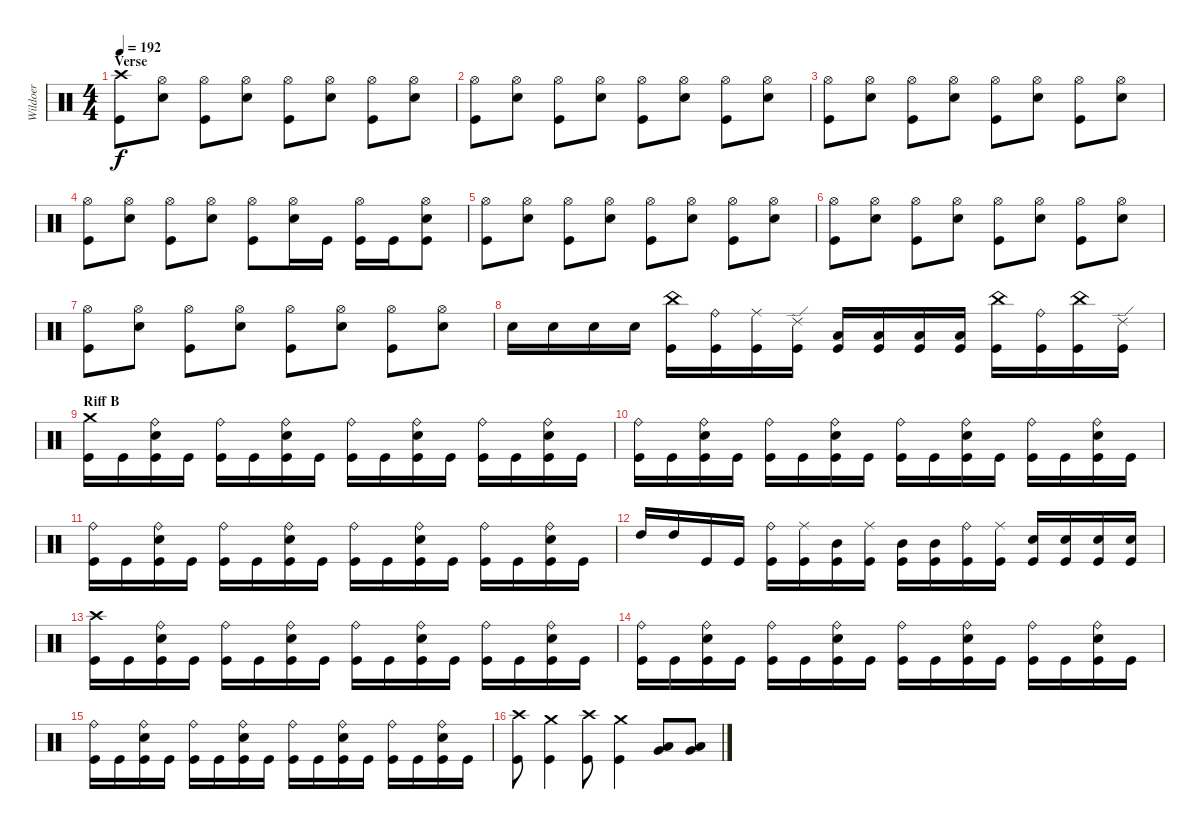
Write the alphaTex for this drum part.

\track ("Wildoer" "Wildoer") {instrument percussion}
\staff {score}
\articulation defaults
\ts (4 4)
\section ("" "Verse")
\tempo 192
\clef neutral
\ks c
("Crash high (hit)" "Kick (hit)").8{dy f} ("Hi-Hat (open)" "Electric Snare (hit)").8 ("Hi-Hat (open)" "Kick (hit)").8 ("Hi-Hat (open)" "Electric Snare (hit)").8 ("Hi-Hat (open)" "Kick (hit)").8 ("Hi-Hat (open)" "Electric Snare (hit)").8 ("Hi-Hat (open)" "Kick (hit)").8 ("Hi-Hat (open)" "Electric Snare (hit)").8 |
("Hi-Hat (open)" "Kick (hit)").8 ("Hi-Hat (open)" "Electric Snare (hit)").8 ("Hi-Hat (open)" "Kick (hit)").8 ("Hi-Hat (open)" "Electric Snare (hit)").8 ("Hi-Hat (open)" "Kick (hit)").8 ("Hi-Hat (open)" "Electric Snare (hit)").8 ("Hi-Hat (open)" "Kick (hit)").8 ("Hi-Hat (open)" "Electric Snare (hit)").8 |
("Hi-Hat (open)" "Kick (hit)").8 ("Hi-Hat (open)" "Electric Snare (hit)").8 ("Hi-Hat (open)" "Kick (hit)").8 ("Hi-Hat (open)" "Electric Snare (hit)").8 ("Hi-Hat (open)" "Kick (hit)").8 ("Hi-Hat (open)" "Electric Snare (hit)").8 ("Hi-Hat (open)" "Kick (hit)").8 ("Hi-Hat (open)" "Electric Snare (hit)").8 |
("Hi-Hat (open)" "Kick (hit)").8 ("Hi-Hat (open)" "Electric Snare (hit)").8 ("Hi-Hat (open)" "Kick (hit)").8 ("Hi-Hat (open)" "Electric Snare (hit)").8 ("Hi-Hat (open)" "Kick (hit)").8 ("Hi-Hat (open)" "Electric Snare (hit)").16 "Kick (hit)".16 ("Hi-Hat (open)" "Kick (hit)").16 "Kick (hit)".16 ("Hi-Hat (open)" "Electric Snare (hit)" "Kick (hit)").8 |
("Hi-Hat (open)" "Kick (hit)").8 ("Hi-Hat (open)" "Electric Snare (hit)").8 ("Hi-Hat (open)" "Kick (hit)").8 ("Hi-Hat (open)" "Electric Snare (hit)").8 ("Hi-Hat (open)" "Kick (hit)").8 ("Hi-Hat (open)" "Electric Snare (hit)").8 ("Hi-Hat (open)" "Kick (hit)").8 ("Hi-Hat (open)" "Electric Snare (hit)").8 |
("Hi-Hat (open)" "Kick (hit)").8 ("Hi-Hat (open)" "Electric Snare (hit)").8 ("Hi-Hat (open)" "Kick (hit)").8 ("Hi-Hat (open)" "Electric Snare (hit)").8 ("Hi-Hat (open)" "Kick (hit)").8 ("Hi-Hat (open)" "Electric Snare (hit)").8 ("Hi-Hat (open)" "Kick (hit)").8 ("Hi-Hat (open)" "Electric Snare (hit)").8 |
("Hi-Hat (open)" "Kick (hit)").8 ("Hi-Hat (open)" "Electric Snare (hit)").8 ("Hi-Hat (open)" "Kick (hit)").8 ("Hi-Hat (open)" "Electric Snare (hit)").8 ("Hi-Hat (open)" "Kick (hit)").8 ("Hi-Hat (open)" "Electric Snare (hit)").8 ("Hi-Hat (open)" "Kick (hit)").8 ("Hi-Hat (open)" "Electric Snare (hit)").8 |
"Electric Snare (hit)".16 "Electric Snare (hit)".16 "Electric Snare (hit)".16 "Electric Snare (hit)".16 ("China (hit)" "Kick (hit)").16 ("Ride (bell)" "Kick (hit)").16 ("Ride (middle)" "Kick (hit)").16 ("Ride (edge) 2" "Kick (hit)").16 ("Low Tom (hit)" "Kick (hit)").16 ("Low Tom (hit)" "Kick (hit)").16 ("Low Floor Tom (hit)" "Kick (hit)").16 ("Low Floor Tom (hit)" "Kick (hit)").16 ("China (hit)" "Kick (hit)").16 ("Ride (bell)" "Kick (hit)").16 ("China (hit)" "Kick (hit)").16 ("Ride (edge) 2" "Kick (hit)").16 |
\section ("" "Riff B")
("Crash medium (hit)" "Kick (hit)").16 "Kick (hit)".16 ("Ride (bell)" "Electric Snare (hit)" "Kick (hit)").16 "Kick (hit)".16 ("Ride (bell)" "Kick (hit)").16 "Kick (hit)".16 ("Ride (bell)" "Electric Snare (hit)" "Kick (hit)").16 "Kick (hit)".16 ("Ride (bell)" "Kick (hit)").16 "Kick (hit)".16 ("Ride (bell)" "Electric Snare (hit)" "Kick (hit)").16 "Kick (hit)".16 ("Ride (bell)" "Kick (hit)").16 "Kick (hit)".16 ("Ride (bell)" "Electric Snare (hit)" "Kick (hit)").16 "Kick (hit)".16 |
("Ride (bell)" "Kick (hit)").16 "Kick (hit)".16 ("Ride (bell)" "Electric Snare (hit)" "Kick (hit)").16 "Kick (hit)".16 ("Ride (bell)" "Kick (hit)").16 "Kick (hit)".16 ("Ride (bell)" "Electric Snare (hit)" "Kick (hit)").16 "Kick (hit)".16 ("Ride (bell)" "Kick (hit)").16 "Kick (hit)".16 ("Ride (bell)" "Electric Snare (hit)" "Kick (hit)").16 "Kick (hit)".16 ("Ride (bell)" "Kick (hit)").16 "Kick (hit)".16 ("Ride (bell)" "Electric Snare (hit)" "Kick (hit)").16 "Kick (hit)".16 |
("Ride (bell)" "Kick (hit)").16 "Kick (hit)".16 ("Ride (bell)" "Electric Snare (hit)" "Kick (hit)").16 "Kick (hit)".16 ("Ride (bell)" "Kick (hit)").16 "Kick (hit)".16 ("Ride (bell)" "Electric Snare (hit)" "Kick (hit)").16 "Kick (hit)".16 ("Ride (bell)" "Kick (hit)").16 "Kick (hit)".16 ("Ride (bell)" "Electric Snare (hit)" "Kick (hit)").16 "Kick (hit)".16 ("Ride (bell)" "Kick (hit)").16 "Kick (hit)".16 ("Ride (bell)" "Electric Snare (hit)" "Kick (hit)").16 "Kick (hit)".16 |
"High Tom (hit)".16 "High Tom (hit)".16 "Kick (hit)".16 "Kick (hit)".16 ("Ride (bell)" "Kick (hit)").16 ("Ride (middle)" "Kick (hit)").16 ("Mid Tom (hit)" "Kick (hit)").16 ("Ride (middle)" "Kick (hit)").16 ("Mid Tom (hit)" "Kick (hit)").16 ("Mid Tom (hit)" "Kick (hit)").16 ("Ride (bell)" "Kick (hit)").16 ("Ride (middle)" "Kick (hit)").16 ("Electric Snare (hit)" "Kick (hit)").16 ("Electric Snare (hit)" "Kick (hit)").16 ("Electric Snare (hit)" "Kick (hit)").16 ("Electric Snare (hit)" "Kick (hit)").16 |
("Crash high (hit)" "Kick (hit)").16 "Kick (hit)".16 ("Ride (bell)" "Electric Snare (hit)" "Kick (hit)").16 "Kick (hit)".16 ("Ride (bell)" "Kick (hit)").16 "Kick (hit)".16 ("Ride (bell)" "Electric Snare (hit)" "Kick (hit)").16 "Kick (hit)".16 ("Ride (bell)" "Kick (hit)").16 "Kick (hit)".16 ("Ride (bell)" "Electric Snare (hit)" "Kick (hit)").16 "Kick (hit)".16 ("Ride (bell)" "Kick (hit)").16 "Kick (hit)".16 ("Ride (bell)" "Electric Snare (hit)" "Kick (hit)").16 "Kick (hit)".16 |
("Ride (bell)" "Kick (hit)").16 "Kick (hit)".16 ("Ride (bell)" "Electric Snare (hit)" "Kick (hit)").16 "Kick (hit)".16 ("Ride (bell)" "Kick (hit)").16 "Kick (hit)".16 ("Ride (bell)" "Electric Snare (hit)" "Kick (hit)").16 "Kick (hit)".16 ("Ride (bell)" "Kick (hit)").16 "Kick (hit)".16 ("Ride (bell)" "Electric Snare (hit)" "Kick (hit)").16 "Kick (hit)".16 ("Ride (bell)" "Kick (hit)").16 "Kick (hit)".16 ("Ride (bell)" "Electric Snare (hit)" "Kick (hit)").16 "Kick (hit)".16 |
("Ride (bell)" "Kick (hit)").16 "Kick (hit)".16 ("Ride (bell)" "Electric Snare (hit)" "Kick (hit)").16 "Kick (hit)".16 ("Ride (bell)" "Kick (hit)").16 "Kick (hit)".16 ("Ride (bell)" "Electric Snare (hit)" "Kick (hit)").16 "Kick (hit)".16 ("Ride (bell)" "Kick (hit)").16 "Kick (hit)".16 ("Ride (bell)" "Electric Snare (hit)" "Kick (hit)").16 "Kick (hit)".16 ("Ride (bell)" "Kick (hit)").16 "Kick (hit)".16 ("Ride (bell)" "Electric Snare (hit)" "Kick (hit)").16 "Kick (hit)".16 |
("Crash high (hit)" "Kick (hit)").8 ("Crash medium (hit)" "Kick (hit)").4 ("Crash high (hit)" "Kick (hit)").8 ("Crash medium (hit)" "Kick (hit)").4 ("Very Low Tom (hit)" "Low Floor Tom (hit)").8 ("Very Low Tom (hit)" "Low Floor Tom (hit)").8
